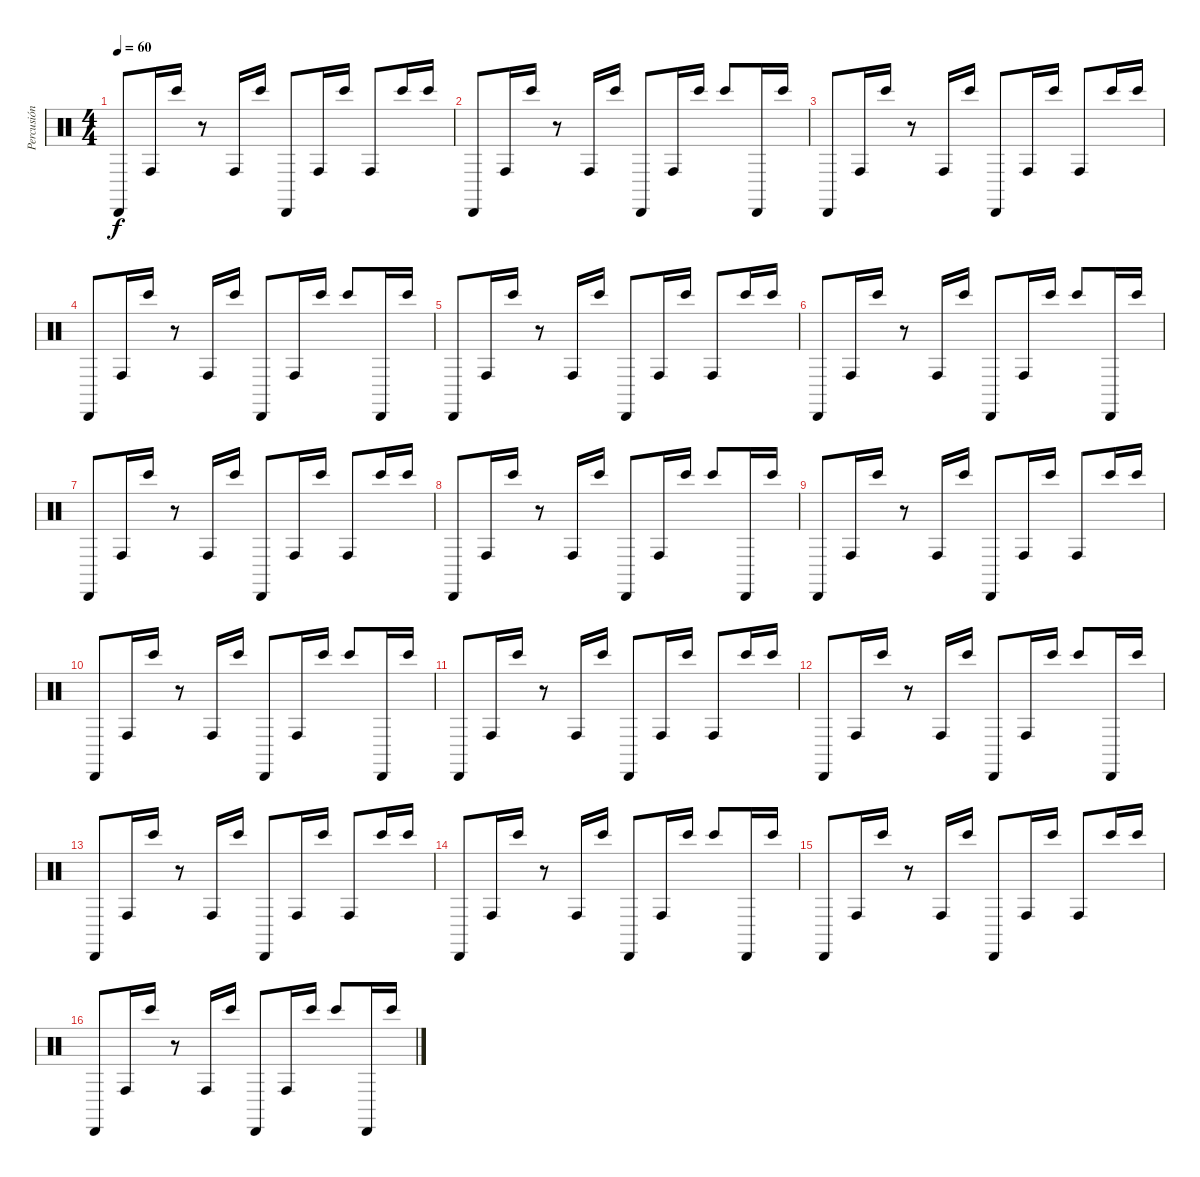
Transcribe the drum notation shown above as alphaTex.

\track ("Percusión" "Percusión") {instrument percussion}
\staff {score}
\articulation defaults
\ts (4 4)
\tempo 60
\clef neutral
\ks c "Cabasa (hit)".8{dy f} "Conga high (hit)".16 "Bongo High (hit)".16
r.8 "Conga high (hit)".16 "Bongo High (hit)".16 "Cabasa (hit)".8 "Conga high (hit)".16 "Bongo High (hit)".16 "Conga high (hit)".8 "Bongo High (hit)".16 "Bongo High (hit)".16 |
"Cabasa (hit)".8 "Conga high (hit)".16 "Bongo High (hit)".16 r.8 "Conga high (hit)".16 "Bongo High (hit)".16 "Cabasa (hit)".8 "Conga high (hit)".16 "Bongo High (hit)".16 "Bongo High (hit)".8 "Cabasa (hit)".16 "Bongo High (hit)".16 |
"Cabasa (hit)".8 "Conga high (hit)".16 "Bongo High (hit)".16 r.8 "Conga high (hit)".16 "Bongo High (hit)".16 "Cabasa (hit)".8 "Conga high (hit)".16 "Bongo High (hit)".16 "Conga high (hit)".8 "Bongo High (hit)".16 "Bongo High (hit)".16 |
"Cabasa (hit)".8 "Conga high (hit)".16 "Bongo High (hit)".16 r.8 "Conga high (hit)".16 "Bongo High (hit)".16 "Cabasa (hit)".8 "Conga high (hit)".16 "Bongo High (hit)".16 "Bongo High (hit)".8 "Cabasa (hit)".16 "Bongo High (hit)".16 |
"Cabasa (hit)".8 "Conga high (hit)".16 "Bongo High (hit)".16 r.8 "Conga high (hit)".16 "Bongo High (hit)".16 "Cabasa (hit)".8 "Conga high (hit)".16 "Bongo High (hit)".16 "Conga high (hit)".8 "Bongo High (hit)".16 "Bongo High (hit)".16 |
"Cabasa (hit)".8 "Conga high (hit)".16 "Bongo High (hit)".16 r.8 "Conga high (hit)".16 "Bongo High (hit)".16 "Cabasa (hit)".8 "Conga high (hit)".16 "Bongo High (hit)".16 "Bongo High (hit)".8 "Cabasa (hit)".16 "Bongo High (hit)".16 |
"Cabasa (hit)".8 "Conga high (hit)".16 "Bongo High (hit)".16 r.8 "Conga high (hit)".16 "Bongo High (hit)".16 "Cabasa (hit)".8 "Conga high (hit)".16 "Bongo High (hit)".16 "Conga high (hit)".8 "Bongo High (hit)".16 "Bongo High (hit)".16 |
"Cabasa (hit)".8 "Conga high (hit)".16 "Bongo High (hit)".16 r.8 "Conga high (hit)".16 "Bongo High (hit)".16 "Cabasa (hit)".8 "Conga high (hit)".16 "Bongo High (hit)".16 "Bongo High (hit)".8 "Cabasa (hit)".16 "Bongo High (hit)".16 |
"Cabasa (hit)".8 "Conga high (hit)".16 "Bongo High (hit)".16 r.8 "Conga high (hit)".16 "Bongo High (hit)".16 "Cabasa (hit)".8 "Conga high (hit)".16 "Bongo High (hit)".16 "Conga high (hit)".8 "Bongo High (hit)".16 "Bongo High (hit)".16 |
"Cabasa (hit)".8 "Conga high (hit)".16 "Bongo High (hit)".16 r.8 "Conga high (hit)".16 "Bongo High (hit)".16 "Cabasa (hit)".8 "Conga high (hit)".16 "Bongo High (hit)".16 "Bongo High (hit)".8 "Cabasa (hit)".16 "Bongo High (hit)".16 |
"Cabasa (hit)".8 "Conga high (hit)".16 "Bongo High (hit)".16 r.8 "Conga high (hit)".16 "Bongo High (hit)".16 "Cabasa (hit)".8 "Conga high (hit)".16 "Bongo High (hit)".16 "Conga high (hit)".8 "Bongo High (hit)".16 "Bongo High (hit)".16 |
"Cabasa (hit)".8 "Conga high (hit)".16 "Bongo High (hit)".16 r.8 "Conga high (hit)".16 "Bongo High (hit)".16 "Cabasa (hit)".8 "Conga high (hit)".16 "Bongo High (hit)".16 "Bongo High (hit)".8 "Cabasa (hit)".16 "Bongo High (hit)".16 |
"Cabasa (hit)".8 "Conga high (hit)".16 "Bongo High (hit)".16 r.8 "Conga high (hit)".16 "Bongo High (hit)".16 "Cabasa (hit)".8 "Conga high (hit)".16 "Bongo High (hit)".16 "Conga high (hit)".8 "Bongo High (hit)".16 "Bongo High (hit)".16 |
"Cabasa (hit)".8 "Conga high (hit)".16 "Bongo High (hit)".16 r.8 "Conga high (hit)".16 "Bongo High (hit)".16 "Cabasa (hit)".8 "Conga high (hit)".16 "Bongo High (hit)".16 "Bongo High (hit)".8 "Cabasa (hit)".16 "Bongo High (hit)".16 |
"Cabasa (hit)".8 "Conga high (hit)".16 "Bongo High (hit)".16 r.8 "Conga high (hit)".16 "Bongo High (hit)".16 "Cabasa (hit)".8 "Conga high (hit)".16 "Bongo High (hit)".16 "Conga high (hit)".8 "Bongo High (hit)".16 "Bongo High (hit)".16 |
"Cabasa (hit)".8 "Conga high (hit)".16 "Bongo High (hit)".16 r.8 "Conga high (hit)".16 "Bongo High (hit)".16 "Cabasa (hit)".8 "Conga high (hit)".16 "Bongo High (hit)".16 "Bongo High (hit)".8 "Cabasa (hit)".16 "Bongo High (hit)".16
